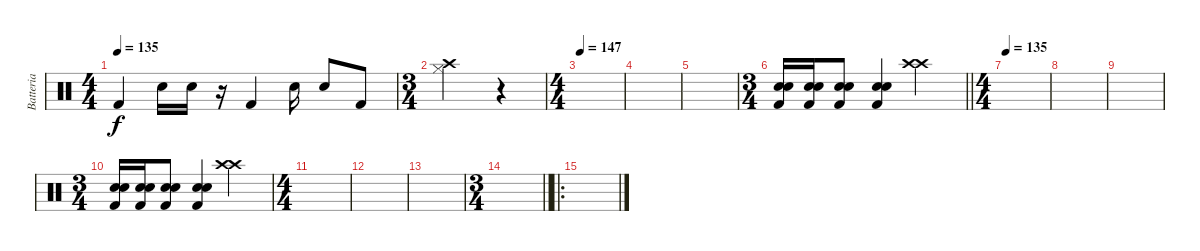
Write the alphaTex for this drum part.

\track ("Batteria" "Batteria") {instrument percussion}
\staff {score}
\articulation defaults
\ts (4 4)
\tempo 135
\clef neutral
\ks c "Kick (hit) 2".4{dy f} "Electric Snare (hit)".16 "Electric Snare (hit)".16
r.16 "Kick (hit) 2".4 "Electric Snare (hit)".16 "Electric Snare (hit)".8 "Kick (hit) 2".8 |
\ts (3 4)
("Crash high (hit)" "Hi-Hat (closed)").2 r.4 |
\ts (4 4)
\tempo 147
|
|
|
\ts (3 4)
\barLineRight lightlight
("Kick (hit) 2" "Snare (hit) 2" "Electric Snare (hit)").16 ("Kick (hit) 2" "Snare (hit) 2" "Electric Snare (hit)").16 ("Kick (hit) 2" "Snare (hit) 2" "Electric Snare (hit)").8 ("Kick (hit) 2" "Snare (hit) 2" "Electric Snare (hit)").4 ("Crash high (hit)" "Crash high (hit)").4 |
\ts (4 4)
\tempo 135
|
|
|
\ts (3 4)
("Kick (hit) 2" "Snare (hit) 2" "Electric Snare (hit)").16 ("Kick (hit) 2" "Snare (hit) 2" "Electric Snare (hit)").16 ("Kick (hit) 2" "Snare (hit) 2" "Electric Snare (hit)").8 ("Kick (hit) 2" "Snare (hit) 2" "Electric Snare (hit)").4 ("Crash high (hit)" "Crash high (hit)").4 |
\ts (4 4)
|
|
|
\ts (3 4)
\barLineRight lightlight
|
\ro
